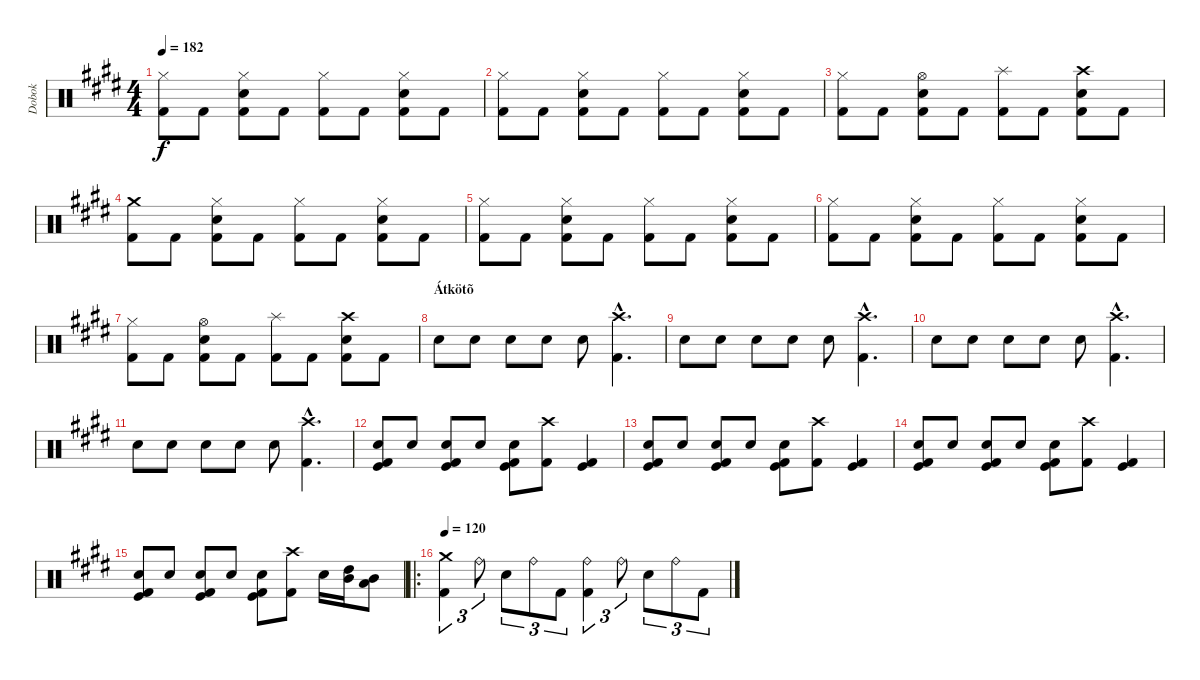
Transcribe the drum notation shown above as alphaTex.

\track ("Dobok" "Dobok") {instrument percussion}
\staff {score}
\articulation defaults
\ts (4 4)
\tempo 182
\clef neutral
\ks c#minor
("Hi-Hat (closed)" "Kick (hit) 2").8{dy f} "Kick (hit) 2".8 ("Hi-Hat (closed)" "Snare (hit) 2" "Kick (hit) 2").8 "Kick (hit) 2".8 ("Hi-Hat (closed)" "Kick (hit) 2").8 "Kick (hit) 2".8 ("Hi-Hat (closed)" "Snare (hit) 2" "Kick (hit) 2").8 "Kick (hit) 2".8 |
("Hi-Hat (closed)" "Kick (hit) 2").8 "Kick (hit) 2".8 ("Hi-Hat (closed)" "Snare (hit) 2" "Kick (hit) 2").8 "Kick (hit) 2".8 ("Hi-Hat (closed)" "Kick (hit) 2").8 "Kick (hit) 2".8 ("Hi-Hat (closed)" "Snare (hit) 2" "Kick (hit) 2").8 "Kick (hit) 2".8 |
("Hi-Hat (closed)" "Kick (hit) 2").8 "Kick (hit) 2".8 ("Hi-Hat (open)" "Snare (hit) 2" "Kick (hit) 2").8 "Kick (hit) 2".8 ("Splash (hit)" "Kick (hit) 2").8 "Kick (hit) 2".8 ("Crash high (hit)" "Snare (hit) 2" "Kick (hit) 2").8 "Kick (hit) 2".8 |
("Crash medium (hit)" "Kick (hit) 2").8 "Kick (hit) 2".8 ("Hi-Hat (closed)" "Snare (hit) 2" "Kick (hit) 2").8 "Kick (hit) 2".8 ("Hi-Hat (closed)" "Kick (hit) 2").8 "Kick (hit) 2".8 ("Hi-Hat (closed)" "Snare (hit) 2" "Kick (hit) 2").8 "Kick (hit) 2".8 |
("Hi-Hat (closed)" "Kick (hit) 2").8 "Kick (hit) 2".8 ("Hi-Hat (closed)" "Snare (hit) 2" "Kick (hit) 2").8 "Kick (hit) 2".8 ("Hi-Hat (closed)" "Kick (hit) 2").8 "Kick (hit) 2".8 ("Hi-Hat (closed)" "Snare (hit) 2" "Kick (hit) 2").8 "Kick (hit) 2".8 |
("Hi-Hat (closed)" "Kick (hit) 2").8 "Kick (hit) 2".8 ("Hi-Hat (closed)" "Snare (hit) 2" "Kick (hit) 2").8 "Kick (hit) 2".8 ("Hi-Hat (closed)" "Kick (hit) 2").8 "Kick (hit) 2".8 ("Hi-Hat (closed)" "Snare (hit) 2" "Kick (hit) 2").8 "Kick (hit) 2".8 |
("Hi-Hat (closed)" "Kick (hit) 2").8 "Kick (hit) 2".8 ("Hi-Hat (open)" "Snare (hit) 2" "Kick (hit) 2").8 "Kick (hit) 2".8 ("Splash (hit)" "Kick (hit) 2").8 "Kick (hit) 2".8 ("Crash high (hit)" "Snare (hit) 2" "Kick (hit) 2").8 "Kick (hit) 2".8 |
\section ("" "Átkötõ")
"Snare (hit) 2".8 "Snare (hit) 2".8 "Snare (hit) 2".8 "Snare (hit) 2".8 "Snare (hit) 2".8 ("Crash high (hit)"{hac} "Kick (hit) 2"{hac}).4{d} |
"Snare (hit) 2".8 "Snare (hit) 2".8 "Snare (hit) 2".8 "Snare (hit) 2".8 "Snare (hit) 2".8 ("Crash high (hit)"{hac} "Kick (hit) 2"{hac}).4{d} |
"Snare (hit) 2".8 "Snare (hit) 2".8 "Snare (hit) 2".8 "Snare (hit) 2".8 "Snare (hit) 2".8 ("Crash high (hit)"{hac} "Kick (hit) 2"{hac}).4{d} |
"Snare (hit) 2".8 "Snare (hit) 2".8 "Snare (hit) 2".8 "Snare (hit) 2".8 "Snare (hit) 2".8 ("Crash high (hit)"{hac} "Kick (hit) 2"{hac}).4{d} |
("Snare (hit) 2" "Kick (hit) 2" "Kick (hit)").8 "Snare (hit) 2".8 ("Snare (hit) 2" "Kick (hit) 2" "Kick (hit)").8 "Snare (hit) 2".8 ("Snare (hit) 2" "Kick (hit) 2" "Kick (hit)").8 ("Crash high (hit)" "Kick (hit) 2").8 ("Kick (hit) 2" "Kick (hit)").4 |
("Snare (hit) 2" "Kick (hit) 2" "Kick (hit)").8 "Snare (hit) 2".8 ("Snare (hit) 2" "Kick (hit) 2" "Kick (hit)").8 "Snare (hit) 2".8 ("Snare (hit) 2" "Kick (hit) 2" "Kick (hit)").8 ("Crash high (hit)" "Kick (hit) 2").8 ("Kick (hit) 2" "Kick (hit)").4 |
("Snare (hit) 2" "Kick (hit) 2" "Kick (hit)").8 "Snare (hit) 2".8 ("Snare (hit) 2" "Kick (hit) 2" "Kick (hit)").8 "Snare (hit) 2".8 ("Snare (hit) 2" "Kick (hit) 2" "Kick (hit)").8 ("Crash high (hit)" "Kick (hit) 2").8 ("Kick (hit) 2" "Kick (hit)").4 |
("Snare (hit) 2" "Kick (hit) 2" "Kick (hit)").8 "Snare (hit) 2".8 ("Snare (hit) 2" "Kick (hit) 2" "Kick (hit)").8 "Snare (hit) 2".8 ("Snare (hit) 2" "Kick (hit) 2" "Kick (hit)").8 ("Crash high (hit)" "Kick (hit) 2").8 "Snare (hit) 2".16 ("High Tom (hit)" "Mid Tom (hit)").16 ("Mid Tom (hit)" "Low Tom (hit)").8 |
\ro
\tempo 120
("Crash medium (hit)" "Kick (hit) 2").4{tu (3 2)} "Ride (bell)".8{tu (3 2)} "Snare (hit) 2".8{tu (3 2)} "Ride (bell)".8{tu (3 2)} "Kick (hit) 2".8{tu (3 2)} ("Ride (bell)" "Kick (hit) 2").4{tu (3 2)} "Ride (bell)".8{tu (3 2)} "Snare (hit) 2".8{tu (3 2)} "Ride (bell)".8{tu (3 2)} "Kick (hit) 2".8{tu (3 2)}
